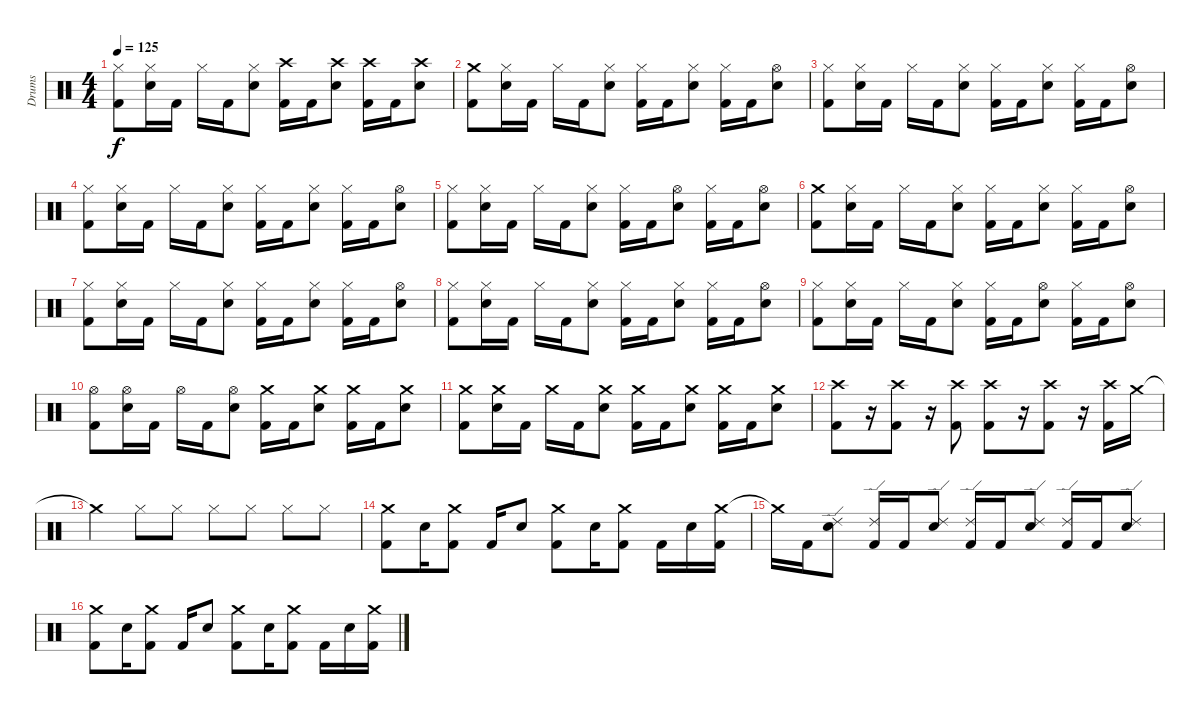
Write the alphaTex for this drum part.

\track ("Drums" "Drums") {instrument percussion}
\staff {score}
\articulation defaults
\ts (4 4)
\tempo 125
\clef neutral
\ks c
("Hi-Hat (closed)" "Kick (hit) 2").8{dy f} ("Snare (hit) 2" "Hi-Hat (closed)").16 "Kick (hit) 2".16 "Hi-Hat (closed)".16 "Kick (hit) 2".16 ("Snare (hit) 2" "Hi-Hat (closed)").8 ("Crash high (hit)" "Kick (hit) 2").16 "Kick (hit) 2".16 ("Crash high (hit)" "Snare (hit) 2").8 ("Crash high (hit)" "Kick (hit) 2").16 "Kick (hit) 2".16 ("Crash high (hit)" "Snare (hit) 2").8 |
("Crash medium (hit)" "Kick (hit) 2").8 ("Snare (hit) 2" "Hi-Hat (closed)").16 "Kick (hit) 2".16 "Hi-Hat (closed)".16 "Kick (hit) 2".16 ("Snare (hit) 2" "Hi-Hat (closed)").8 ("Hi-Hat (closed)" "Kick (hit) 2").16 "Kick (hit) 2".16 ("Snare (hit) 2" "Hi-Hat (closed)").8 ("Hi-Hat (closed)" "Kick (hit) 2").16 "Kick (hit) 2".16 ("Snare (hit) 2" "Hi-Hat (open)").8 |
("Hi-Hat (closed)" "Kick (hit) 2").8 ("Snare (hit) 2" "Hi-Hat (closed)").16 "Kick (hit) 2".16 "Hi-Hat (closed)".16 "Kick (hit) 2".16 ("Snare (hit) 2" "Hi-Hat (closed)").8 ("Hi-Hat (closed)" "Kick (hit) 2").16 "Kick (hit) 2".16 ("Snare (hit) 2" "Hi-Hat (closed)").8 ("Hi-Hat (closed)" "Kick (hit) 2").16 "Kick (hit) 2".16 ("Snare (hit) 2" "Hi-Hat (open)").8 |
("Hi-Hat (closed)" "Kick (hit) 2").8 ("Snare (hit) 2" "Hi-Hat (closed)").16 "Kick (hit) 2".16 "Hi-Hat (closed)".16 "Kick (hit) 2".16 ("Snare (hit) 2" "Hi-Hat (closed)").8 ("Hi-Hat (closed)" "Kick (hit) 2").16 "Kick (hit) 2".16 ("Snare (hit) 2" "Hi-Hat (closed)").8 ("Hi-Hat (closed)" "Kick (hit) 2").16 "Kick (hit) 2".16 ("Snare (hit) 2" "Hi-Hat (open)").8 |
("Hi-Hat (closed)" "Kick (hit) 2").8 ("Snare (hit) 2" "Hi-Hat (closed)").16 "Kick (hit) 2".16 "Hi-Hat (closed)".16 "Kick (hit) 2".16 ("Snare (hit) 2" "Hi-Hat (closed)").8 ("Hi-Hat (closed)" "Kick (hit) 2").16 "Kick (hit) 2".16 ("Snare (hit) 2" "Hi-Hat (open)").8 ("Hi-Hat (closed)" "Kick (hit) 2").16 "Kick (hit) 2".16 ("Snare (hit) 2" "Hi-Hat (open)").8 |
("Crash medium (hit)" "Kick (hit) 2").8 ("Snare (hit) 2" "Hi-Hat (closed)").16 "Kick (hit) 2".16 "Hi-Hat (closed)".16 "Kick (hit) 2".16 ("Snare (hit) 2" "Hi-Hat (closed)").8 ("Hi-Hat (closed)" "Kick (hit) 2").16 "Kick (hit) 2".16 ("Snare (hit) 2" "Hi-Hat (closed)").8 ("Hi-Hat (closed)" "Kick (hit) 2").16 "Kick (hit) 2".16 ("Snare (hit) 2" "Hi-Hat (open)").8 |
("Hi-Hat (closed)" "Kick (hit) 2").8 ("Snare (hit) 2" "Hi-Hat (closed)").16 "Kick (hit) 2".16 "Hi-Hat (closed)".16 "Kick (hit) 2".16 ("Snare (hit) 2" "Hi-Hat (closed)").8 ("Hi-Hat (closed)" "Kick (hit) 2").16 "Kick (hit) 2".16 ("Snare (hit) 2" "Hi-Hat (closed)").8 ("Hi-Hat (closed)" "Kick (hit) 2").16 "Kick (hit) 2".16 ("Snare (hit) 2" "Hi-Hat (open)").8 |
("Hi-Hat (closed)" "Kick (hit) 2").8 ("Snare (hit) 2" "Hi-Hat (closed)").16 "Kick (hit) 2".16 "Hi-Hat (closed)".16 "Kick (hit) 2".16 ("Snare (hit) 2" "Hi-Hat (closed)").8 ("Hi-Hat (closed)" "Kick (hit) 2").16 "Kick (hit) 2".16 ("Snare (hit) 2" "Hi-Hat (closed)").8 ("Hi-Hat (closed)" "Kick (hit) 2").16 "Kick (hit) 2".16 ("Snare (hit) 2" "Hi-Hat (open)").8 |
("Hi-Hat (closed)" "Kick (hit) 2").8 ("Snare (hit) 2" "Hi-Hat (closed)").16 "Kick (hit) 2".16 "Hi-Hat (closed)".16 "Kick (hit) 2".16 ("Snare (hit) 2" "Hi-Hat (closed)").8 ("Hi-Hat (closed)" "Kick (hit) 2").16 "Kick (hit) 2".16 ("Snare (hit) 2" "Hi-Hat (open)").8 ("Hi-Hat (closed)" "Kick (hit) 2").16 "Kick (hit) 2".16 ("Snare (hit) 2" "Hi-Hat (open)").8 |
("Hi-Hat (open)" "Kick (hit) 2").8 ("Snare (hit) 2" "Hi-Hat (open)").16 "Kick (hit) 2".16 "Hi-Hat (open)".16 "Kick (hit) 2".16 ("Snare (hit) 2" "Hi-Hat (open)").8 ("Crash medium (hit)" "Kick (hit) 2").16 "Kick (hit) 2".16 ("Crash medium (hit)" "Snare (hit) 2").8 ("Crash medium (hit)" "Kick (hit) 2").16 "Kick (hit) 2".16 ("Crash medium (hit)" "Snare (hit) 2").8 |
("Crash medium (hit)" "Kick (hit) 2").8 ("Crash medium (hit)" "Snare (hit) 2").16 "Kick (hit) 2".16 "Crash medium (hit)".16 "Kick (hit) 2".16 ("Crash medium (hit)" "Snare (hit) 2").8 ("Crash medium (hit)" "Kick (hit) 2").16 "Kick (hit) 2".16 ("Crash medium (hit)" "Snare (hit) 2").8 ("Crash medium (hit)" "Kick (hit) 2").16 "Kick (hit) 2".16 ("Crash medium (hit)" "Snare (hit) 2").8 |
("Crash high (hit)" "Kick (hit) 2").8 r.16 ("Crash high (hit)" "Kick (hit) 2").8 r.16 ("Crash high (hit)" "Kick (hit) 2").8 ("Crash high (hit)" "Kick (hit) 2").8 r.16 ("Crash high (hit)" "Kick (hit) 2").8 r.16 ("Crash high (hit)" "Kick (hit) 2").16 "Crash medium (hit)".16 |
"Crash medium (hit)"{t}.4 "Hi-Hat (closed)".8 "Hi-Hat (closed)".8 "Hi-Hat (closed)".8 "Hi-Hat (closed)".8 "Hi-Hat (closed)".8 "Hi-Hat (closed)".8 |
("Crash medium (hit)" "Kick (hit) 2").8 "Snare (hit) 2".16 ("Crash medium (hit)" "Kick (hit) 2").8 "Kick (hit) 2".16 "Snare (hit) 2".8 ("Crash medium (hit)" "Kick (hit) 2").8 "Snare (hit) 2".16 ("Crash medium (hit)" "Kick (hit) 2").8 "Kick (hit) 2".16 "Snare (hit) 2".16 ("Crash medium (hit)" "Kick (hit) 2").16 |
"Crash medium (hit)"{t}.16 "Kick (hit) 2".16 ("Snare (hit) 2" "Ride (edge) 2").8 ("Ride (edge) 2" "Kick (hit) 2").16 "Kick (hit) 2".16 ("Snare (hit) 2" "Ride (edge) 2").8 ("Ride (edge) 2" "Kick (hit) 2").16 "Kick (hit) 2".16 ("Snare (hit) 2" "Ride (edge) 2").8 ("Ride (edge) 2" "Kick (hit) 2").16 "Kick (hit) 2".16 ("Snare (hit) 2" "Ride (edge) 2").8 |
("Crash medium (hit)" "Kick (hit) 2").8 "Snare (hit) 2".16 ("Crash medium (hit)" "Kick (hit) 2").8 "Kick (hit) 2".16 "Snare (hit) 2".8 ("Crash medium (hit)" "Kick (hit) 2").8 "Snare (hit) 2".16 ("Crash medium (hit)" "Kick (hit) 2").8 "Kick (hit) 2".16 "Snare (hit) 2".16 ("Crash medium (hit)" "Kick (hit) 2").16
